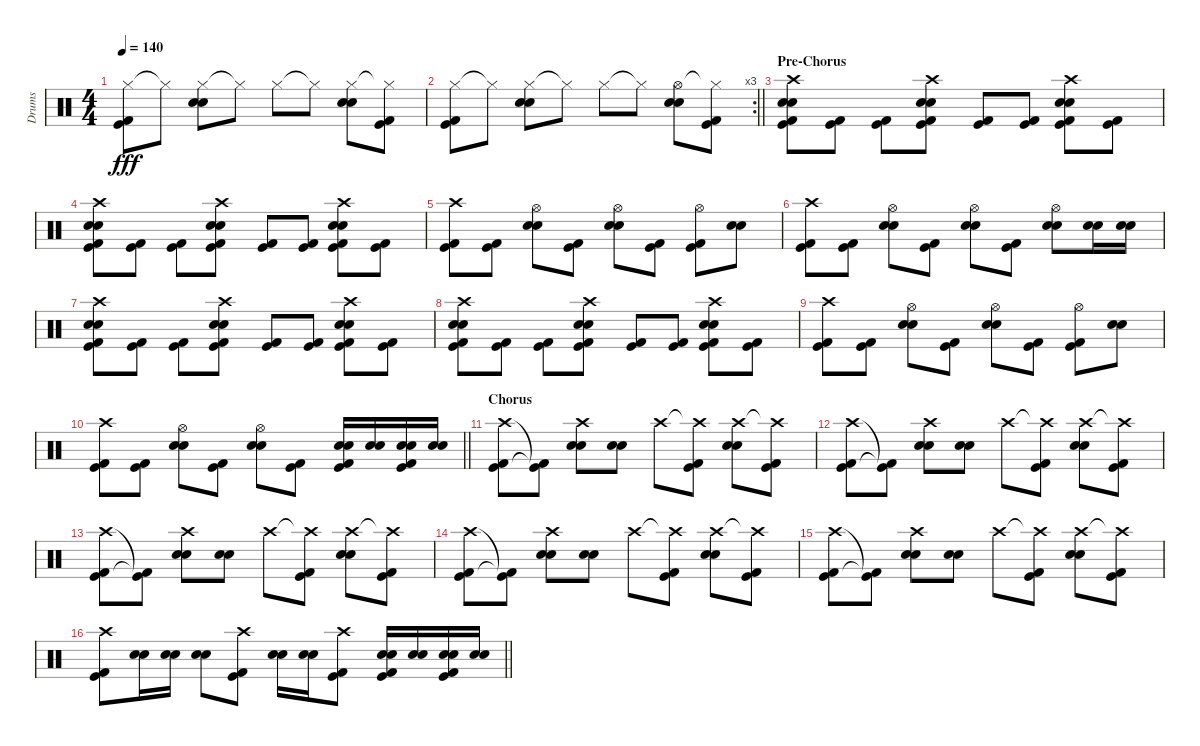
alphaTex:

\track ("Drums" "Drums") {instrument percussion}
\staff {score}
\articulation defaults
\ts (4 4)
\tempo 140
\clef neutral
\ks c
("Hi-Hat (closed)" "Kick (hit)" "Kick (hit) 2").8{dy fff} "Hi-Hat (closed)"{t}.8 ("Hi-Hat (closed)" "Electric Snare (hit)" "Electric Snare (hit)").8 "Hi-Hat (closed)"{t}.8 "Hi-Hat (closed)".8 "Hi-Hat (closed)"{t}.8 ("Hi-Hat (closed)" "Electric Snare (hit)" "Electric Snare (hit)").8 ("Hi-Hat (closed)"{t} "Kick (hit)" "Kick (hit) 2").8 |
\rc 3
\barLineRight lightlight
("Hi-Hat (closed)" "Kick (hit)" "Kick (hit) 2").8 "Hi-Hat (closed)"{t}.8 ("Hi-Hat (closed)" "Electric Snare (hit)" "Electric Snare (hit)").8 "Hi-Hat (closed)"{t}.8 "Hi-Hat (closed)".8 "Hi-Hat (closed)"{t}.8 ("Hi-Hat (open)" "Electric Snare (hit)" "Electric Snare (hit)").8 ("Hi-Hat (closed)"{t} "Kick (hit)" "Kick (hit) 2").8 |
\section ("" "Pre-Chorus")
("Crash high (hit)" "Electric Snare (hit)" "Electric Snare (hit)" "Kick (hit)" "Kick (hit) 2").8 ("Kick (hit)" "Kick (hit) 2").8 ("Kick (hit)" "Kick (hit) 2").8 ("Crash high (hit)" "Electric Snare (hit)" "Electric Snare (hit)" "Kick (hit)" "Kick (hit) 2").8 ("Kick (hit)" "Kick (hit) 2").8 ("Kick (hit)" "Kick (hit) 2").8 ("Crash high (hit)" "Electric Snare (hit)" "Electric Snare (hit)" "Kick (hit)" "Kick (hit) 2").8 ("Kick (hit)" "Kick (hit) 2").8 |
("Crash high (hit)" "Electric Snare (hit)" "Electric Snare (hit)" "Kick (hit)" "Kick (hit) 2").8 ("Kick (hit)" "Kick (hit) 2").8 ("Kick (hit)" "Kick (hit) 2").8 ("Crash high (hit)" "Electric Snare (hit)" "Electric Snare (hit)" "Kick (hit)" "Kick (hit) 2").8 ("Kick (hit)" "Kick (hit) 2").8 ("Kick (hit)" "Kick (hit) 2").8 ("Crash high (hit)" "Electric Snare (hit)" "Electric Snare (hit)" "Kick (hit)" "Kick (hit) 2").8 ("Kick (hit)" "Kick (hit) 2").8 |
("Crash high (hit)" "Kick (hit)" "Kick (hit) 2").8 ("Kick (hit)" "Kick (hit) 2").8 ("Hi-Hat (open)" "Electric Snare (hit)" "Electric Snare (hit)").8 ("Kick (hit)" "Kick (hit) 2").8 ("Hi-Hat (open)" "Electric Snare (hit)" "Electric Snare (hit)").8 ("Kick (hit)" "Kick (hit) 2").8 ("Hi-Hat (open)" "Kick (hit)" "Kick (hit) 2").8 ("Electric Snare (hit)" "Electric Snare (hit)").8 |
("Crash high (hit)" "Kick (hit)" "Kick (hit) 2").8 ("Kick (hit)" "Kick (hit) 2").8 ("Hi-Hat (open)" "Electric Snare (hit)" "Electric Snare (hit)").8 ("Kick (hit)" "Kick (hit) 2").8 ("Hi-Hat (open)" "Electric Snare (hit)" "Electric Snare (hit)").8 ("Kick (hit)" "Kick (hit) 2").8 ("Hi-Hat (open)" "Electric Snare (hit)" "Electric Snare (hit)").8 ("Electric Snare (hit)" "Electric Snare (hit)").16 ("Electric Snare (hit)" "Electric Snare (hit)").16 |
("Crash high (hit)" "Electric Snare (hit)" "Electric Snare (hit)" "Kick (hit)" "Kick (hit) 2").8 ("Kick (hit)" "Kick (hit) 2").8 ("Kick (hit)" "Kick (hit) 2").8 ("Crash high (hit)" "Electric Snare (hit)" "Electric Snare (hit)" "Kick (hit)" "Kick (hit) 2").8 ("Kick (hit)" "Kick (hit) 2").8 ("Kick (hit)" "Kick (hit) 2").8 ("Crash high (hit)" "Electric Snare (hit)" "Electric Snare (hit)" "Kick (hit)" "Kick (hit) 2").8 ("Kick (hit)" "Kick (hit) 2").8 |
("Crash high (hit)" "Electric Snare (hit)" "Electric Snare (hit)" "Kick (hit)" "Kick (hit) 2").8 ("Kick (hit)" "Kick (hit) 2").8 ("Kick (hit)" "Kick (hit) 2").8 ("Crash high (hit)" "Electric Snare (hit)" "Electric Snare (hit)" "Kick (hit)" "Kick (hit) 2").8 ("Kick (hit)" "Kick (hit) 2").8 ("Kick (hit)" "Kick (hit) 2").8 ("Crash high (hit)" "Electric Snare (hit)" "Electric Snare (hit)" "Kick (hit)" "Kick (hit) 2").8 ("Kick (hit)" "Kick (hit) 2").8 |
("Crash high (hit)" "Kick (hit)" "Kick (hit) 2").8 ("Kick (hit)" "Kick (hit) 2").8 ("Hi-Hat (open)" "Electric Snare (hit)" "Electric Snare (hit)").8 ("Kick (hit)" "Kick (hit) 2").8 ("Hi-Hat (open)" "Electric Snare (hit)" "Electric Snare (hit)").8 ("Kick (hit)" "Kick (hit) 2").8 ("Hi-Hat (open)" "Kick (hit)" "Kick (hit) 2").8 ("Electric Snare (hit)" "Electric Snare (hit)").8 |
\barLineRight lightlight
("Crash high (hit)" "Kick (hit)" "Kick (hit) 2").8 ("Kick (hit)" "Kick (hit) 2").8 ("Hi-Hat (open)" "Electric Snare (hit)" "Electric Snare (hit)").8 ("Kick (hit)" "Kick (hit) 2").8 ("Hi-Hat (open)" "Electric Snare (hit)" "Electric Snare (hit)").8 ("Kick (hit)" "Kick (hit) 2").8 ("Electric Snare (hit)" "Electric Snare (hit)" "Kick (hit)" "Kick (hit) 2").16 ("Electric Snare (hit)" "Electric Snare (hit)").16 ("Electric Snare (hit)" "Electric Snare (hit)" "Kick (hit)" "Kick (hit) 2").16 ("Electric Snare (hit)" "Electric Snare (hit)").16 |
\section ("" "Chorus")
("Crash high (hit)" "Kick (hit)" "Kick (hit) 2").8 ("Kick (hit)"{t} "Kick (hit) 2"{t}).8 ("Crash high (hit)" "Electric Snare (hit)" "Electric Snare (hit)").8 ("Electric Snare (hit)" "Electric Snare (hit)").8 "Crash high (hit)".8 ("Crash high (hit)"{t} "Kick (hit)" "Kick (hit) 2").8 ("Crash high (hit)" "Electric Snare (hit)" "Electric Snare (hit)").8 ("Crash high (hit)"{t} "Kick (hit)" "Kick (hit) 2").8 |
("Crash high (hit)" "Kick (hit)" "Kick (hit) 2").8 ("Kick (hit)"{t} "Kick (hit) 2"{t}).8 ("Crash high (hit)" "Electric Snare (hit)" "Electric Snare (hit)").8 ("Electric Snare (hit)" "Electric Snare (hit)").8 "Crash high (hit)".8 ("Crash high (hit)"{t} "Kick (hit)" "Kick (hit) 2").8 ("Crash high (hit)" "Electric Snare (hit)" "Electric Snare (hit)").8 ("Crash high (hit)"{t} "Kick (hit)" "Kick (hit) 2").8 |
("Crash high (hit)" "Kick (hit)" "Kick (hit) 2").8 ("Kick (hit)"{t} "Kick (hit) 2"{t}).8 ("Crash high (hit)" "Electric Snare (hit)" "Electric Snare (hit)").8 ("Electric Snare (hit)" "Electric Snare (hit)").8 "Crash high (hit)".8 ("Crash high (hit)"{t} "Kick (hit)" "Kick (hit) 2").8 ("Crash high (hit)" "Electric Snare (hit)" "Electric Snare (hit)").8 ("Crash high (hit)"{t} "Kick (hit)" "Kick (hit) 2").8 |
("Crash high (hit)" "Kick (hit)" "Kick (hit) 2").8 ("Kick (hit)"{t} "Kick (hit) 2"{t}).8 ("Crash high (hit)" "Electric Snare (hit)" "Electric Snare (hit)").8 ("Electric Snare (hit)" "Electric Snare (hit)").8 "Crash high (hit)".8 ("Crash high (hit)"{t} "Kick (hit)" "Kick (hit) 2").8 ("Crash high (hit)" "Electric Snare (hit)" "Electric Snare (hit)").8 ("Crash high (hit)"{t} "Kick (hit)" "Kick (hit) 2").8 |
("Crash high (hit)" "Kick (hit)" "Kick (hit) 2").8 ("Kick (hit)"{t} "Kick (hit) 2"{t}).8 ("Crash high (hit)" "Electric Snare (hit)" "Electric Snare (hit)").8 ("Electric Snare (hit)" "Electric Snare (hit)").8 "Crash high (hit)".8 ("Crash high (hit)"{t} "Kick (hit)" "Kick (hit) 2").8 ("Crash high (hit)" "Electric Snare (hit)" "Electric Snare (hit)").8 ("Crash high (hit)"{t} "Kick (hit)" "Kick (hit) 2").8 |
\barLineRight lightlight
("Crash high (hit)" "Kick (hit)" "Kick (hit) 2").8 ("Electric Snare (hit)" "Electric Snare (hit)").16 ("Electric Snare (hit)" "Electric Snare (hit)").16 ("Electric Snare (hit)" "Electric Snare (hit)").8 ("Crash high (hit)" "Kick (hit)" "Kick (hit) 2").8 ("Electric Snare (hit)" "Electric Snare (hit)").16 ("Electric Snare (hit)" "Electric Snare (hit)").16 ("Crash high (hit)" "Kick (hit)" "Kick (hit) 2").8 ("Electric Snare (hit)" "Electric Snare (hit)" "Kick (hit)" "Kick (hit) 2").16 ("Electric Snare (hit)" "Electric Snare (hit)").16 ("Electric Snare (hit)" "Electric Snare (hit)" "Kick (hit)" "Kick (hit) 2").16 ("Electric Snare (hit)" "Electric Snare (hit)").16
